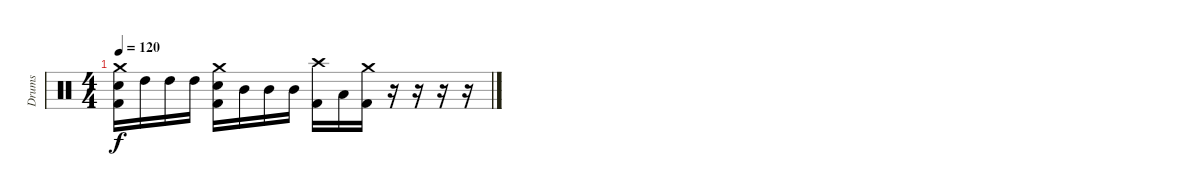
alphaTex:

\track ("Drums" "Drums") {instrument percussion}
\staff {score}
\articulation defaults
\ts (4 4)
\tempo 120
\clef neutral
\ks c
("Crash medium (hit)" "Snare (hit) 2" "Kick (hit) 2").16{dy f} "High Tom (hit)".16 "High Tom (hit)".16 "High Tom (hit)".16 ("Crash medium (hit)" "Snare (hit) 2" "Kick (hit) 2").16 "Mid Tom (hit)".16 "Mid Tom (hit)".16 "Mid Tom (hit)".16 ("Crash high (hit)" "Kick (hit) 2").16 "Low Tom (hit)".16 ("Crash medium (hit)" "Kick (hit) 2").16 r.16 r.16 r.16 r.16
